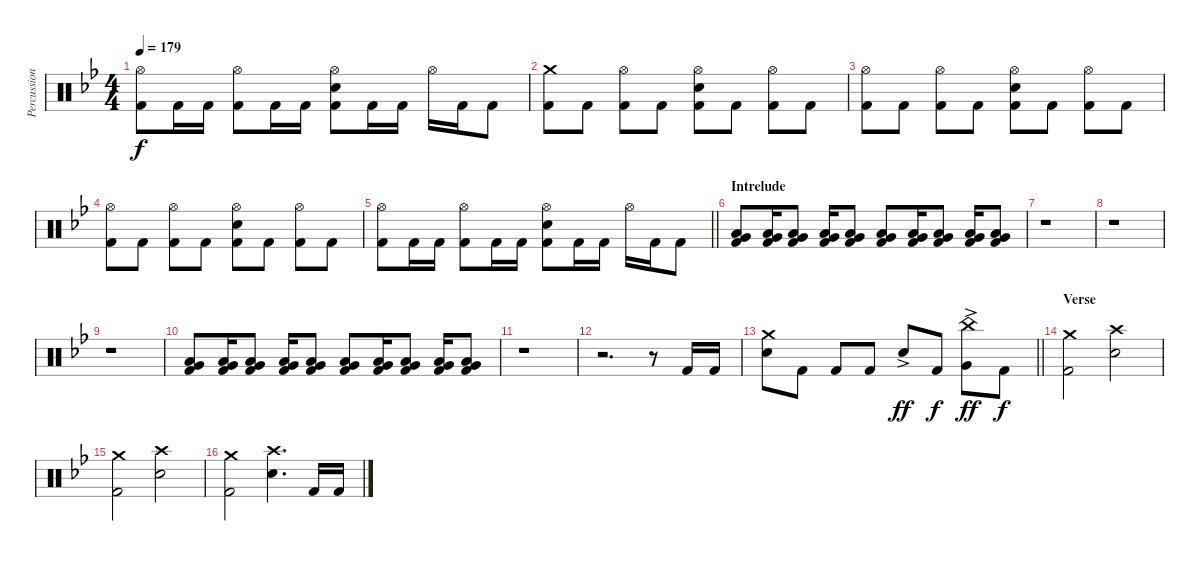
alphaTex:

\track ("Percussion" "Percussion") {instrument percussion}
\staff {score}
\articulation defaults
\ts (4 4)
\tempo 179
\clef neutral
\ks bb
("Hi-Hat (open)" "Kick (hit) 2").8{dy f} "Kick (hit) 2".16 "Kick (hit) 2".16 ("Hi-Hat (open)" "Kick (hit) 2").8 "Kick (hit) 2".16 "Kick (hit) 2".16 ("Hi-Hat (open)" "Electric Snare (hit)" "Kick (hit) 2").8 "Kick (hit) 2".16 "Kick (hit) 2".16 "Hi-Hat (open)".16 "Kick (hit) 2".16 "Kick (hit) 2".8 |
("Crash medium (hit)" "Kick (hit) 2").8 "Kick (hit) 2".8 ("Hi-Hat (open)" "Kick (hit) 2").8 "Kick (hit) 2".8 ("Hi-Hat (open)" "Electric Snare (hit)" "Kick (hit) 2").8 "Kick (hit) 2".8 ("Hi-Hat (open)" "Kick (hit) 2").8 "Kick (hit) 2".8 |
("Hi-Hat (open)" "Kick (hit) 2").8 "Kick (hit) 2".8 ("Hi-Hat (open)" "Kick (hit) 2").8 "Kick (hit) 2".8 ("Hi-Hat (open)" "Electric Snare (hit)" "Kick (hit) 2").8 "Kick (hit) 2".8 ("Hi-Hat (open)" "Kick (hit) 2").8 "Kick (hit) 2".8 |
("Hi-Hat (open)" "Kick (hit) 2").8 "Kick (hit) 2".8 ("Hi-Hat (open)" "Kick (hit) 2").8 "Kick (hit) 2".8 ("Hi-Hat (open)" "Electric Snare (hit)" "Kick (hit) 2").8 "Kick (hit) 2".8 ("Hi-Hat (open)" "Kick (hit) 2").8 "Kick (hit) 2".8 |
\barLineRight lightlight
("Hi-Hat (open)" "Kick (hit) 2").8 "Kick (hit) 2".16 "Kick (hit) 2".16 ("Hi-Hat (open)" "Kick (hit) 2").8 "Kick (hit) 2".16 "Kick (hit) 2".16 ("Hi-Hat (open)" "Electric Snare (hit)" "Kick (hit) 2").8 "Kick (hit) 2".16 "Kick (hit) 2".16 "Hi-Hat (open)".16 "Kick (hit) 2".16 "Kick (hit) 2".8 |
\section ("" "Intrelude")
("Very Low Tom (hit)" "Low Floor Tom (hit)" "Kick (hit) 2").8 ("Very Low Tom (hit)" "Low Floor Tom (hit)" "Kick (hit) 2").16 ("Very Low Tom (hit)" "Low Floor Tom (hit)" "Kick (hit) 2").8 ("Very Low Tom (hit)" "Low Floor Tom (hit)" "Kick (hit) 2").16 ("Very Low Tom (hit)" "Low Floor Tom (hit)" "Kick (hit) 2").8 ("Very Low Tom (hit)" "Low Floor Tom (hit)" "Kick (hit) 2").8 ("Very Low Tom (hit)" "Low Floor Tom (hit)" "Kick (hit) 2").16 ("Very Low Tom (hit)" "Low Floor Tom (hit)" "Kick (hit) 2").8 ("Very Low Tom (hit)" "Low Floor Tom (hit)" "Kick (hit) 2").16 ("Very Low Tom (hit)" "Low Floor Tom (hit)" "Kick (hit) 2").8 |
r.1 |
r.1 |
r.1 |
("Very Low Tom (hit)" "Low Floor Tom (hit)" "Kick (hit) 2").8 ("Very Low Tom (hit)" "Low Floor Tom (hit)" "Kick (hit) 2").16 ("Very Low Tom (hit)" "Low Floor Tom (hit)" "Kick (hit) 2").8 ("Very Low Tom (hit)" "Low Floor Tom (hit)" "Kick (hit) 2").16 ("Very Low Tom (hit)" "Low Floor Tom (hit)" "Kick (hit) 2").8 ("Very Low Tom (hit)" "Low Floor Tom (hit)" "Kick (hit) 2").8 ("Very Low Tom (hit)" "Low Floor Tom (hit)" "Kick (hit) 2").16 ("Very Low Tom (hit)" "Low Floor Tom (hit)" "Kick (hit) 2").8 ("Very Low Tom (hit)" "Low Floor Tom (hit)" "Kick (hit) 2").16 ("Very Low Tom (hit)" "Low Floor Tom (hit)" "Kick (hit) 2").8 |
r.1 |
r.2{d} r.8 "Kick (hit) 2".16 "Kick (hit) 2".16 |
\barLineRight lightlight
("Crash medium (hit)" "Electric Snare (hit)").8 "Kick (hit) 2".8 "Kick (hit) 2".8 "Kick (hit) 2".8 "Electric Snare (hit)"{ac}.8{dy ff} "Kick (hit) 2".8{dy f} ("China (hit)" "Very Low Tom (hit)"{ac}).8{dy ff} "Kick (hit) 2".8{dy f} |
\section ("" "Verse")
("Crash medium (hit)" "Kick (hit) 2").2 ("Crash high (hit)" "Electric Snare (hit)").2 |
("Crash medium (hit)" "Kick (hit) 2").2 ("Crash high (hit)" "Electric Snare (hit)").2 |
("Crash medium (hit)" "Kick (hit) 2").2 ("Crash high (hit)" "Electric Snare (hit)").4{d} "Kick (hit) 2".16 "Kick (hit) 2".16
